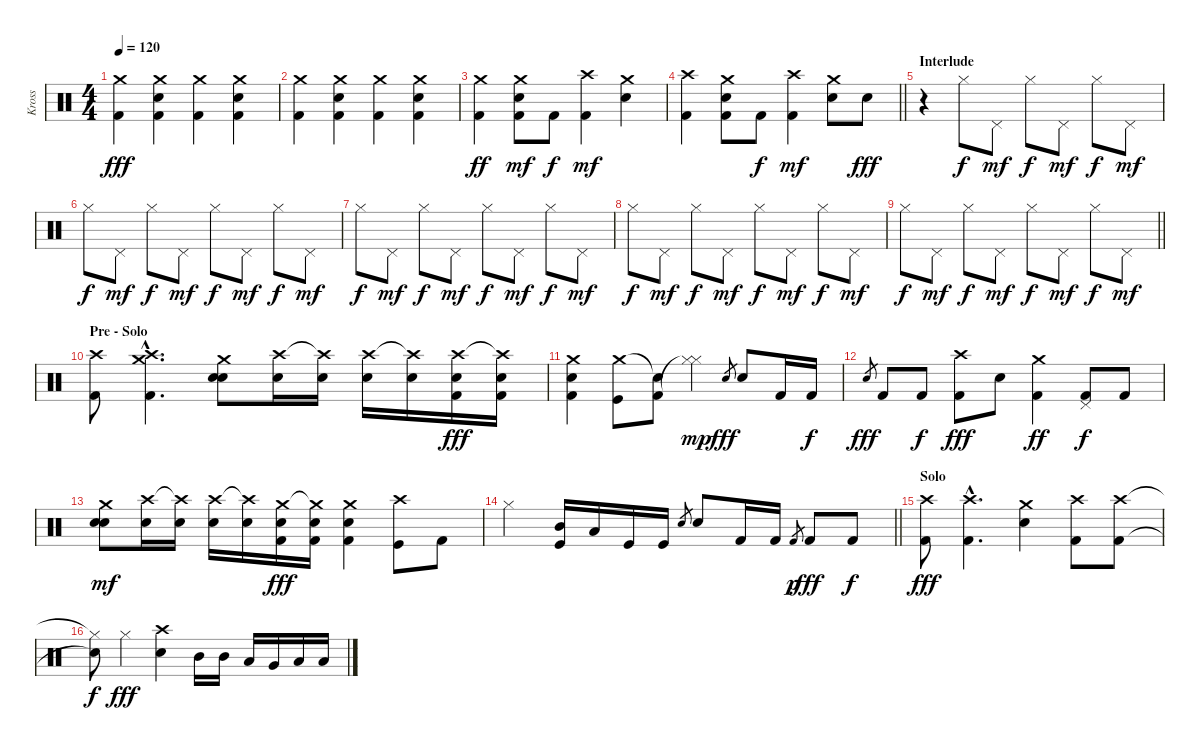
\track ("Kross" "Kross") {instrument percussion}
\staff {score}
\articulation defaults
\ts (4 4)
\tempo 120
\clef neutral
\ks c
("Crash medium (hit)" "Kick (hit) 2").4{dy fff} ("Snare (hit) 2" "Crash medium (hit)" "Kick (hit) 2").4 ("Crash medium (hit)" "Kick (hit) 2").4 ("Snare (hit) 2" "Crash medium (hit)" "Kick (hit) 2").4 |
("Crash medium (hit)" "Kick (hit) 2").4 ("Snare (hit) 2" "Crash medium (hit)" "Kick (hit) 2").4 ("Crash medium (hit)" "Kick (hit) 2").4 ("Snare (hit) 2" "Crash medium (hit)" "Kick (hit) 2").4 |
("Kick (hit) 2" "Crash medium (hit)").4{dy ff} ("Kick (hit) 2" "Crash medium (hit)" "Snare (hit) 2").8{dy mf} "Kick (hit) 2".8{dy f} ("Kick (hit) 2" "Crash high (hit)").4{dy mf} ("Crash medium (hit)" "Electric Snare (hit)").4 |
\barLineRight lightlight
("Kick (hit) 2" "Crash high (hit)").4 ("Kick (hit) 2" "Crash medium (hit)" "Electric Snare (hit)").8 "Kick (hit) 2".8{dy f} ("Kick (hit) 2" "Crash high (hit)").4{dy mf} ("Crash medium (hit)" "Electric Snare (hit)").8 "Electric Snare (hit)".8{dy fff} |
\section ("" "Interlude")
r.4 "Hi-Hat (closed)".8{dy f} "Pedal Hi-Hat (hit)".8{dy mf} "Hi-Hat (closed)".8{dy f} "Pedal Hi-Hat (hit)".8{dy mf} "Hi-Hat (closed)".8{dy f} "Pedal Hi-Hat (hit)".8{dy mf} |
"Hi-Hat (closed)".8{dy f} "Pedal Hi-Hat (hit)".8{dy mf} "Hi-Hat (closed)".8{dy f} "Pedal Hi-Hat (hit)".8{dy mf} "Hi-Hat (closed)".8{dy f} "Pedal Hi-Hat (hit)".8{dy mf} "Hi-Hat (closed)".8{dy f} "Pedal Hi-Hat (hit)".8{dy mf} |
"Hi-Hat (closed)".8{dy f} "Pedal Hi-Hat (hit)".8{dy mf} "Hi-Hat (closed)".8{dy f} "Pedal Hi-Hat (hit)".8{dy mf} "Hi-Hat (closed)".8{dy f} "Pedal Hi-Hat (hit)".8{dy mf} "Hi-Hat (closed)".8{dy f} "Pedal Hi-Hat (hit)".8{dy mf} |
"Hi-Hat (closed)".8{dy f} "Pedal Hi-Hat (hit)".8{dy mf} "Hi-Hat (closed)".8{dy f} "Pedal Hi-Hat (hit)".8{dy mf} "Hi-Hat (closed)".8{dy f} "Pedal Hi-Hat (hit)".8{dy mf} "Hi-Hat (closed)".8{dy f} "Pedal Hi-Hat (hit)".8{dy mf} |
\barLineRight lightlight "Hi-Hat (closed)".8{dy f} "Pedal Hi-Hat (hit)".8{dy mf} "Hi-Hat (closed)".8{dy f} "Pedal Hi-Hat (hit)".8{dy mf} "Hi-Hat (closed)".8{dy f} "Pedal Hi-Hat (hit)".8{dy mf} "Hi-Hat (closed)".8{dy f} "Pedal Hi-Hat (hit)".8{dy mf}
|
\section ("" "Pre - Solo")
("Crash high (hit)" "Kick (hit) 2").8 ("Crash high (hit)"{hac} "Crash medium (hit)"{hac} "Kick (hit) 2"{hac}).4{d} ("Crash medium (hit)" "Snare (hit) 2" "Electric Snare (hit)").8 ("Crash high (hit)" "Electric Snare (hit)").16 ("Crash high (hit)"{t} "Electric Snare (hit)").16 ("Crash high (hit)" "Electric Snare (hit)").16 ("Crash high (hit)"{t} "Electric Snare (hit)").16 ("Crash high (hit)" "Snare (hit) 2" "Kick (hit) 2").16{dy fff} ("Crash high (hit)"{t} "Snare (hit) 2" "Kick (hit) 2").16 |
("Crash medium (hit)" "Snare (hit) 2" "Kick (hit) 2").4 ("Crash medium (hit)" "Kick (hit)").8 ("Snare (hit)"{t} "Kick (hit) 2").8 ("Hi-Hat (closed)" "Hi-Hat (closed)"{t}).4{dy mp} "Electric Snare (hit)".8{gr dy fff} "Electric Snare (hit)".8 "Kick (hit) 2".16 "Kick (hit) 2".16{dy f} |
"Snare (hit) 2".8{gr dy fff} "Kick (hit) 2".8 "Kick (hit) 2".8{dy f} ("Crash high (hit)" "Kick (hit) 2").8{dy fff} "Electric Snare (hit)".8 ("Crash medium (hit)" "Kick (hit) 2").4{dy ff} ("Pedal Hi-Hat (hit)" "Kick (hit) 2").8{dy f} "Kick (hit) 2".8 |
("Crash medium (hit)" "Snare (hit) 2" "Electric Snare (hit)").8{dy mf} ("Crash high (hit)" "Electric Snare (hit)").16 ("Crash high (hit)"{t} "Electric Snare (hit)").16 ("Crash high (hit)" "Electric Snare (hit)").16 ("Crash high (hit)"{t} "Electric Snare (hit)").16 ("Crash medium (hit)" "Snare (hit) 2" "Kick (hit) 2").16{dy fff} ("Crash medium (hit)"{t} "Snare (hit) 2" "Kick (hit) 2").16 ("Crash medium (hit)" "Snare (hit) 2" "Kick (hit) 2").4 ("Crash high (hit)" "Kick (hit)").8 "Kick (hit) 2".8 |
\barLineRight lightlight "Hi-Hat (closed)".4
("Mid Tom (hit)" "Kick (hit)").16 "Low Tom (hit)".16 "Kick (hit)".16 "Kick (hit)".16 "Electric Snare (hit)".8{gr} "Electric Snare (hit)".8 "Kick (hit) 2".16 "Kick (hit) 2".16 "Kick (hit) 2".8{gr dy p} "Kick (hit) 2".8{dy fff} "Kick (hit) 2".8{dy f} |
\section ("" "Solo")
("Crash high (hit)" "Kick (hit) 2").8{dy fff} ("Crash high (hit)"{hac} "Kick (hit) 2"{hac}).4{d} ("Crash medium (hit)" "Electric Snare (hit)").4 ("Crash high (hit)" "Kick (hit) 2").8 ("Crash high (hit)" "Kick (hit) 2").8 |
("Hi-Hat (closed)"{t} "Snare (hit)"{t}).8{dy f} "Hi-Hat (closed)".4{dy fff} ("Crash high (hit)" "Electric Snare (hit)").4 "Mid Tom (hit)".16 "Mid Tom (hit)".16 "Low Tom (hit)".16 "Very Low Tom (hit)".16 "Low Floor Tom (hit)".16 "Low Floor Tom (hit)".16
